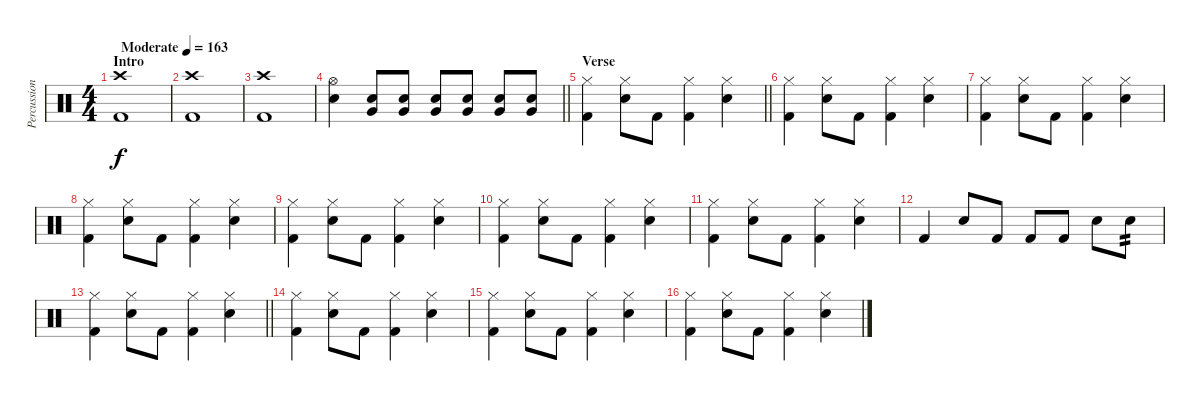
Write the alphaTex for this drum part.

\track ("Percussion" "Percussion") {instrument percussion}
\staff {score}
\articulation defaults
\ts (4 4)
\section ("" "Intro")
\tempo (163 "Moderate")
\clef neutral
\ks c
("Crash high (hit)" "Kick (hit) 2").1{dy f} |
("Crash high (hit)" "Kick (hit) 2").1 |
("Crash high (hit)" "Kick (hit) 2").1 |
\barLineRight lightlight
("Hi-Hat (open)" "Electric Snare (hit)").4 ("Very Low Tom (hit)" "Electric Snare (hit)").8 ("Very Low Tom (hit)" "Electric Snare (hit)").8 ("Very Low Tom (hit)" "Electric Snare (hit)").8 ("Very Low Tom (hit)" "Electric Snare (hit)").8 ("Very Low Tom (hit)" "Electric Snare (hit)").8 ("Very Low Tom (hit)" "Electric Snare (hit)").8 |
\section ("" "Verse")
\barLineRight lightlight
("Hi-Hat (closed)" "Kick (hit) 2").4 ("Hi-Hat (closed)" "Electric Snare (hit)").8 "Kick (hit) 2".8 ("Hi-Hat (closed)" "Kick (hit) 2").4 ("Hi-Hat (closed)" "Electric Snare (hit)").4 |
("Hi-Hat (closed)" "Kick (hit) 2").4 ("Hi-Hat (closed)" "Electric Snare (hit)").8 "Kick (hit) 2".8 ("Hi-Hat (closed)" "Kick (hit) 2").4 ("Hi-Hat (closed)" "Electric Snare (hit)").4 |
("Hi-Hat (closed)" "Kick (hit) 2").4 ("Hi-Hat (closed)" "Electric Snare (hit)").8 "Kick (hit) 2".8 ("Hi-Hat (closed)" "Kick (hit) 2").4 ("Hi-Hat (closed)" "Electric Snare (hit)").4 |
("Hi-Hat (closed)" "Kick (hit) 2").4 ("Hi-Hat (closed)" "Electric Snare (hit)").8 "Kick (hit) 2".8 ("Hi-Hat (closed)" "Kick (hit) 2").4 ("Hi-Hat (closed)" "Electric Snare (hit)").4 |
("Hi-Hat (closed)" "Kick (hit) 2").4 ("Hi-Hat (closed)" "Electric Snare (hit)").8 "Kick (hit) 2".8 ("Hi-Hat (closed)" "Kick (hit) 2").4 ("Hi-Hat (closed)" "Electric Snare (hit)").4 |
("Hi-Hat (closed)" "Kick (hit) 2").4 ("Hi-Hat (closed)" "Electric Snare (hit)").8 "Kick (hit) 2".8 ("Hi-Hat (closed)" "Kick (hit) 2").4 ("Hi-Hat (closed)" "Electric Snare (hit)").4 |
("Hi-Hat (closed)" "Kick (hit) 2").4 ("Hi-Hat (closed)" "Electric Snare (hit)").8 "Kick (hit) 2".8 ("Hi-Hat (closed)" "Kick (hit) 2").4 ("Hi-Hat (closed)" "Electric Snare (hit)").4 |
"Kick (hit) 2".4 "Electric Snare (hit)".8 "Kick (hit) 2".8 "Kick (hit) 2".8 "Kick (hit) 2".8 "Electric Snare (hit)".8 "Electric Snare (hit)".8{tp 2} |
\barLineRight lightlight
("Hi-Hat (closed)" "Kick (hit) 2").4 ("Hi-Hat (closed)" "Electric Snare (hit)").8 "Kick (hit) 2".8 ("Hi-Hat (closed)" "Kick (hit) 2").4 ("Hi-Hat (closed)" "Electric Snare (hit)").4 |
("Hi-Hat (closed)" "Kick (hit) 2").4 ("Hi-Hat (closed)" "Electric Snare (hit)").8 "Kick (hit) 2".8 ("Hi-Hat (closed)" "Kick (hit) 2").4 ("Hi-Hat (closed)" "Electric Snare (hit)").4 |
("Hi-Hat (closed)" "Kick (hit) 2").4 ("Hi-Hat (closed)" "Electric Snare (hit)").8 "Kick (hit) 2".8 ("Hi-Hat (closed)" "Kick (hit) 2").4 ("Hi-Hat (closed)" "Electric Snare (hit)").4 |
("Hi-Hat (closed)" "Kick (hit) 2").4 ("Hi-Hat (closed)" "Electric Snare (hit)").8 "Kick (hit) 2".8 ("Hi-Hat (closed)" "Kick (hit) 2").4 ("Hi-Hat (closed)" "Electric Snare (hit)").4
